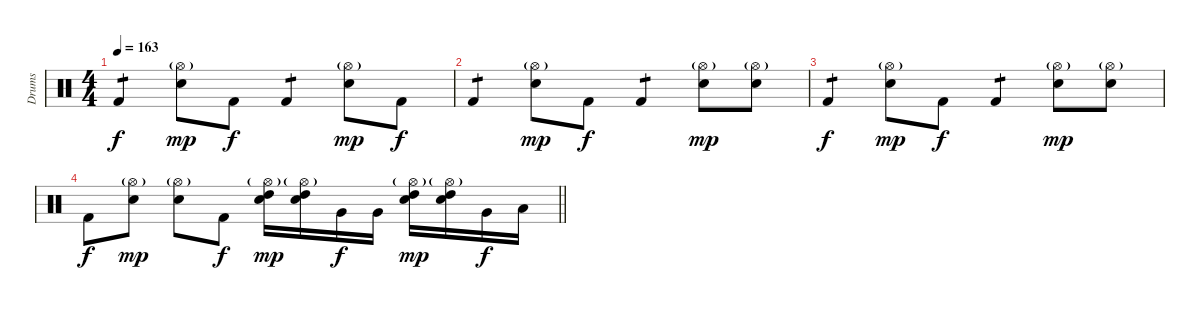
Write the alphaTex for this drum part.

\track ("Drums" "Drums") {instrument percussion}
\staff {score}
\articulation defaults
\ts (4 4)
\tempo 163
\clef neutral
\ks c "Kick (hit) 2".4{tp 1 dy f}
("Hi-Hat (open)"{g} "Snare (hit) 2").8{dy mp} "Kick (hit) 2".8{dy f} "Kick (hit) 2".4{tp 1} ("Hi-Hat (open)"{g} "Snare (hit) 2").8{dy mp} "Kick (hit) 2".8{dy f} |
"Kick (hit) 2".4{tp 1} ("Hi-Hat (open)"{g} "Snare (hit) 2").8{dy mp} "Kick (hit) 2".8{dy f} "Kick (hit) 2".4{tp 1} ("Hi-Hat (open)"{g} "Snare (hit) 2").8{dy mp} ("Hi-Hat (open)"{g} "Snare (hit) 2").8 |
"Kick (hit) 2".4{tp 1 dy f} ("Hi-Hat (open)"{g} "Snare (hit) 2").8{dy mp} "Kick (hit) 2".8{dy f} "Kick (hit) 2".4{tp 1} ("Hi-Hat (open)"{g} "Snare (hit) 2").8{dy mp} ("Hi-Hat (open)"{g} "Snare (hit) 2").8 |
\barLineRight lightlight "Kick (hit) 2".8{dy f}
("Hi-Hat (open)"{g} "Snare (hit) 2").8{dy mp} ("Hi-Hat (open)"{g} "Snare (hit) 2").8 "Kick (hit) 2".8{dy f} ("Hi-Hat (open)"{g} "High Tom (hit)" "Snare (hit) 2").16{dy mp} ("Hi-Hat (open)"{g} "High Tom (hit)" "Snare (hit) 2").16 "Very Low Tom (hit)".16{dy f} "Very Low Tom (hit)".16 ("Hi-Hat (open)"{g} "High Tom (hit)" "Snare (hit) 2").16{dy mp} ("Hi-Hat (open)"{g} "High Tom (hit)" "Snare (hit) 2").16 "Very Low Tom (hit)".16{dy f} "Low Floor Tom (hit)".16
